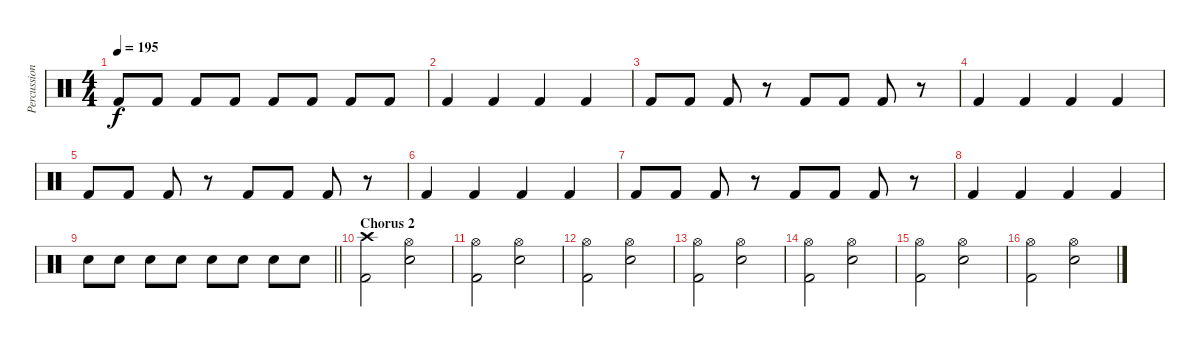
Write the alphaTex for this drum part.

\track ("Percussion" "Percussion") {instrument percussion}
\staff {score}
\articulation defaults
\ts (4 4)
\tempo 195
\clef neutral
\ks c "Kick (hit) 2".8{dy f} "Kick (hit) 2".8 "Kick (hit) 2".8 "Kick (hit) 2".8 "Kick (hit) 2".8 "Kick (hit) 2".8 "Kick (hit) 2".8 "Kick (hit) 2".8
|
"Kick (hit) 2".4 "Kick (hit) 2".4 "Kick (hit) 2".4 "Kick (hit) 2".4 |
"Kick (hit) 2".8 "Kick (hit) 2".8 "Kick (hit) 2".8 r.8 "Kick (hit) 2".8 "Kick (hit) 2".8 "Kick (hit) 2".8 r.8 |
"Kick (hit) 2".4 "Kick (hit) 2".4 "Kick (hit) 2".4 "Kick (hit) 2".4 |
"Kick (hit) 2".8 "Kick (hit) 2".8 "Kick (hit) 2".8 r.8 "Kick (hit) 2".8 "Kick (hit) 2".8 "Kick (hit) 2".8 r.8 |
"Kick (hit) 2".4 "Kick (hit) 2".4 "Kick (hit) 2".4 "Kick (hit) 2".4 |
"Kick (hit) 2".8 "Kick (hit) 2".8 "Kick (hit) 2".8 r.8 "Kick (hit) 2".8 "Kick (hit) 2".8 "Kick (hit) 2".8 r.8 |
"Kick (hit) 2".4 "Kick (hit) 2".4 "Kick (hit) 2".4 "Kick (hit) 2".4 |
\barLineRight lightlight "Snare (hit) 2".8 "Snare (hit) 2".8 "Snare (hit) 2".8 "Snare (hit) 2".8 "Snare (hit) 2".8 "Snare (hit) 2".8 "Snare (hit) 2".8 "Snare (hit) 2".8
|
\section ("" "Chorus 2")
("Crash high (hit)" "Kick (hit) 2").2 ("Hi-Hat (open)" "Snare (hit) 2").2 |
("Hi-Hat (open)" "Kick (hit) 2").2 ("Hi-Hat (open)" "Snare (hit) 2").2 |
("Hi-Hat (open)" "Kick (hit) 2").2 ("Hi-Hat (open)" "Snare (hit) 2").2 |
("Hi-Hat (open)" "Kick (hit) 2").2 ("Hi-Hat (open)" "Snare (hit) 2").2 |
("Hi-Hat (open)" "Kick (hit) 2").2 ("Hi-Hat (open)" "Snare (hit) 2").2 |
("Hi-Hat (open)" "Kick (hit) 2").2 ("Hi-Hat (open)" "Snare (hit) 2").2 |
("Hi-Hat (open)" "Kick (hit) 2").2 ("Hi-Hat (open)" "Snare (hit) 2").2
